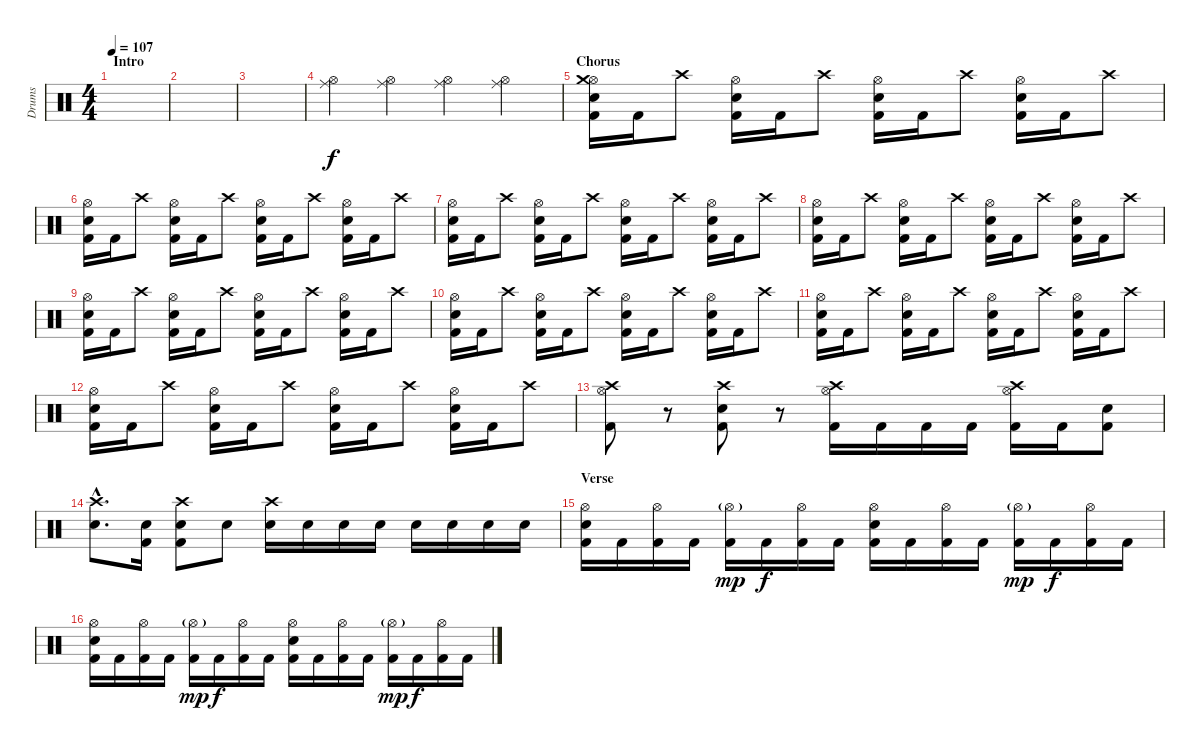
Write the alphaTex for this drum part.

\track ("Drums" "Drums") {instrument percussion}
\staff {score}
\articulation defaults
\ts (4 4)
\section ("" "Intro")
\tempo 107
\clef neutral
\ks c
|
|
|
("Hi-Hat (open)" "Ride (middle)").4 ("Hi-Hat (open)" "Ride (middle)").4 ("Hi-Hat (open)" "Ride (middle)").4 ("Hi-Hat (open)" "Ride (middle)").4 |
\section ("" "Chorus")
("Hi-Hat (open)" "Snare (hit) 2" "Kick (hit) 2" "Crash medium (hit)").16 "Kick (hit) 2".16 "Crash high (hit)".8 ("Hi-Hat (open)" "Snare (hit) 2" "Kick (hit) 2").16 "Kick (hit) 2".16 "Crash high (hit)".8 ("Hi-Hat (open)" "Snare (hit) 2" "Kick (hit) 2").16 "Kick (hit) 2".16 "Crash high (hit)".8 ("Hi-Hat (open)" "Snare (hit) 2" "Kick (hit) 2").16 "Kick (hit) 2".16 "Crash high (hit)".8 |
("Hi-Hat (open)" "Snare (hit) 2" "Kick (hit) 2").16 "Kick (hit) 2".16 "Crash high (hit)".8 ("Hi-Hat (open)" "Snare (hit) 2" "Kick (hit) 2").16 "Kick (hit) 2".16 "Crash high (hit)".8 ("Hi-Hat (open)" "Snare (hit) 2" "Kick (hit) 2").16 "Kick (hit) 2".16 "Crash high (hit)".8 ("Hi-Hat (open)" "Snare (hit) 2" "Kick (hit) 2").16 "Kick (hit) 2".16 "Crash high (hit)".8 |
("Hi-Hat (open)" "Snare (hit) 2" "Kick (hit) 2").16 "Kick (hit) 2".16 "Crash high (hit)".8 ("Hi-Hat (open)" "Snare (hit) 2" "Kick (hit) 2").16 "Kick (hit) 2".16 "Crash high (hit)".8 ("Hi-Hat (open)" "Snare (hit) 2" "Kick (hit) 2").16 "Kick (hit) 2".16 "Crash high (hit)".8 ("Hi-Hat (open)" "Snare (hit) 2" "Kick (hit) 2").16 "Kick (hit) 2".16 "Crash high (hit)".8 |
("Hi-Hat (open)" "Snare (hit) 2" "Kick (hit) 2").16 "Kick (hit) 2".16 "Crash high (hit)".8 ("Hi-Hat (open)" "Snare (hit) 2" "Kick (hit) 2").16 "Kick (hit) 2".16 "Crash high (hit)".8 ("Hi-Hat (open)" "Snare (hit) 2" "Kick (hit) 2").16 "Kick (hit) 2".16 "Crash high (hit)".8 ("Hi-Hat (open)" "Snare (hit) 2" "Kick (hit) 2").16 "Kick (hit) 2".16 "Crash high (hit)".8 |
("Hi-Hat (open)" "Snare (hit) 2" "Kick (hit) 2").16 "Kick (hit) 2".16 "Crash high (hit)".8 ("Hi-Hat (open)" "Snare (hit) 2" "Kick (hit) 2").16 "Kick (hit) 2".16 "Crash high (hit)".8 ("Hi-Hat (open)" "Snare (hit) 2" "Kick (hit) 2").16 "Kick (hit) 2".16 "Crash high (hit)".8 ("Hi-Hat (open)" "Snare (hit) 2" "Kick (hit) 2").16 "Kick (hit) 2".16 "Crash high (hit)".8 |
("Hi-Hat (open)" "Snare (hit) 2" "Kick (hit) 2").16 "Kick (hit) 2".16 "Crash high (hit)".8 ("Hi-Hat (open)" "Snare (hit) 2" "Kick (hit) 2").16 "Kick (hit) 2".16 "Crash high (hit)".8 ("Hi-Hat (open)" "Snare (hit) 2" "Kick (hit) 2").16 "Kick (hit) 2".16 "Crash high (hit)".8 ("Hi-Hat (open)" "Snare (hit) 2" "Kick (hit) 2").16 "Kick (hit) 2".16 "Crash high (hit)".8 |
("Hi-Hat (open)" "Snare (hit) 2" "Kick (hit) 2").16 "Kick (hit) 2".16 "Crash high (hit)".8 ("Hi-Hat (open)" "Snare (hit) 2" "Kick (hit) 2").16 "Kick (hit) 2".16 "Crash high (hit)".8 ("Hi-Hat (open)" "Snare (hit) 2" "Kick (hit) 2").16 "Kick (hit) 2".16 "Crash high (hit)".8 ("Hi-Hat (open)" "Snare (hit) 2" "Kick (hit) 2").16 "Kick (hit) 2".16 "Crash high (hit)".8 |
("Hi-Hat (open)" "Snare (hit) 2" "Kick (hit) 2").16 "Kick (hit) 2".16 "Crash high (hit)".8 ("Hi-Hat (open)" "Snare (hit) 2" "Kick (hit) 2").16 "Kick (hit) 2".16 "Crash high (hit)".8 ("Hi-Hat (open)" "Snare (hit) 2" "Kick (hit) 2").16 "Kick (hit) 2".16 "Crash high (hit)".8 ("Hi-Hat (open)" "Snare (hit) 2" "Kick (hit) 2").16 "Kick (hit) 2".16 "Crash high (hit)".8 |
("Crash high (hit)" "Hi-Hat (open)" "Kick (hit) 2").8 r.8 ("Crash high (hit)" "Snare (hit) 2" "Kick (hit) 2").8 r.8 ("Crash high (hit)" "Hi-Hat (open)" "Kick (hit) 2").16 "Kick (hit) 2".16 "Kick (hit) 2".16 "Kick (hit) 2".16 ("Crash high (hit)" "Hi-Hat (open)" "Kick (hit) 2").16 "Kick (hit) 2".16 ("Snare (hit) 2" "Kick (hit) 2").8 |
("Crash high (hit)"{hac} "Snare (hit) 2"{hac}).8{d} ("Snare (hit) 2" "Kick (hit) 2").16 ("Crash high (hit)" "Snare (hit) 2" "Kick (hit) 2").8 "Snare (hit) 2".8 ("Crash high (hit)" "Snare (hit) 2").16 "Snare (hit) 2".16 "Snare (hit) 2".16 "Snare (hit) 2".16 "Snare (hit) 2".16 "Snare (hit) 2".16 "Snare (hit) 2".16 "Snare (hit) 2".16 |
\section ("" "Verse")
("Hi-Hat (open)" "Snare (hit) 2" "Kick (hit) 2").16 "Kick (hit) 2".16 ("Hi-Hat (open)" "Kick (hit) 2").16 "Kick (hit) 2".16 ("Hi-Hat (open)"{g} "Kick (hit) 2").16{dy mp} "Kick (hit) 2".16{dy f} ("Hi-Hat (open)" "Kick (hit) 2").16 "Kick (hit) 2".16 ("Hi-Hat (open)" "Snare (hit) 2" "Kick (hit) 2").16 "Kick (hit) 2".16 ("Hi-Hat (open)" "Kick (hit) 2").16 "Kick (hit) 2".16 ("Hi-Hat (open)"{g} "Kick (hit) 2").16{dy mp} "Kick (hit) 2".16{dy f} ("Hi-Hat (open)" "Kick (hit) 2").16 "Kick (hit) 2".16 |
("Hi-Hat (open)" "Snare (hit) 2" "Kick (hit) 2").16 "Kick (hit) 2".16 ("Hi-Hat (open)" "Kick (hit) 2").16 "Kick (hit) 2".16 ("Hi-Hat (open)"{g} "Kick (hit) 2").16{dy mp} "Kick (hit) 2".16{dy f} ("Hi-Hat (open)" "Kick (hit) 2").16 "Kick (hit) 2".16 ("Hi-Hat (open)" "Snare (hit) 2" "Kick (hit) 2").16 "Kick (hit) 2".16 ("Hi-Hat (open)" "Kick (hit) 2").16 "Kick (hit) 2".16 ("Hi-Hat (open)"{g} "Kick (hit) 2").16{dy mp} "Kick (hit) 2".16{dy f} ("Hi-Hat (open)" "Kick (hit) 2").16 "Kick (hit) 2".16
